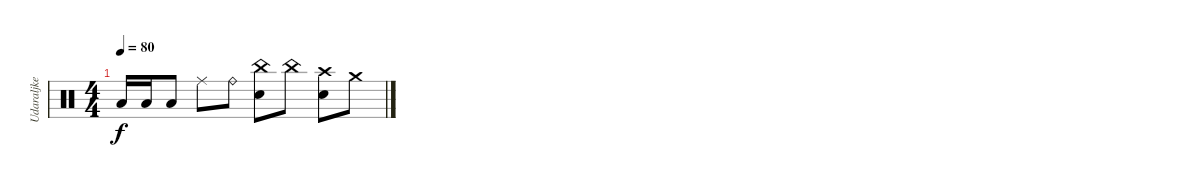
\track ("Udaraljke" "Udaraljke") {instrument percussion}
\staff {score}
\articulation defaults
\ts (4 4)
\tempo 80
\clef neutral
\ks c "Low Floor Tom (hit)".16{dy f} "Low Floor Tom (hit)".16 "Low Floor Tom (hit)".8 "Ride (middle)".8 "Ride (bell)".8
("China (hit)" "Snare (hit) 2").8 "China (hit)".8 ("Crash high (hit)" "Snare (hit) 2").8 "Crash medium (hit)".8
